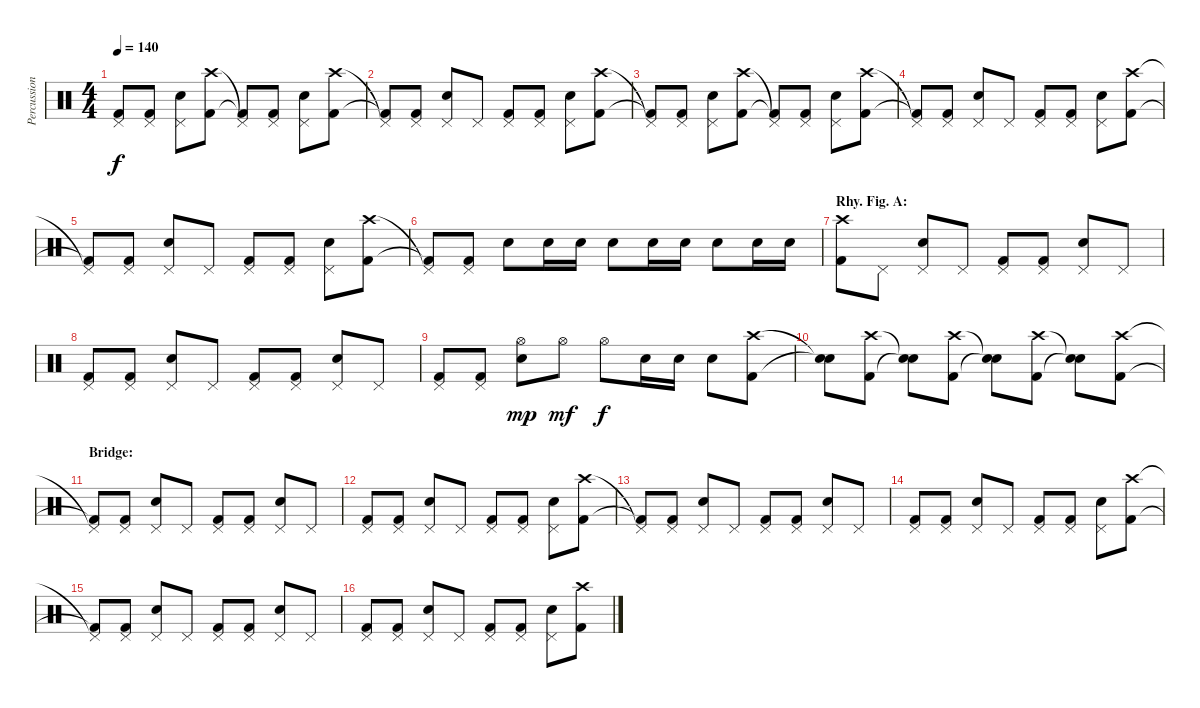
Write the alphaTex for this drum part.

\track ("Percussion" "Percussion") {instrument percussion}
\staff {score}
\articulation defaults
\ts (4 4)
\tempo 140
\clef neutral
\ks c
("Pedal Hi-Hat (hit)"{t} "Kick (hit) 2"{t}).8{dy f} ("Pedal Hi-Hat (hit)" "Kick (hit) 2").8 ("Pedal Hi-Hat (hit)" "Snare (hit) 2").8 ("Crash high (hit)" "Kick (hit) 2").8 ("Pedal Hi-Hat (hit)"{t} "Kick (hit) 2"{t}).8 ("Pedal Hi-Hat (hit)" "Kick (hit) 2").8 ("Pedal Hi-Hat (hit)" "Snare (hit) 2").8 ("Crash high (hit)" "Kick (hit) 2").8 |
("Pedal Hi-Hat (hit)"{t} "Kick (hit) 2"{t}).8 ("Pedal Hi-Hat (hit)" "Kick (hit) 2").8 ("Pedal Hi-Hat (hit)" "Snare (hit) 2").8 "Pedal Hi-Hat (hit)".8 ("Pedal Hi-Hat (hit)" "Kick (hit) 2").8 ("Pedal Hi-Hat (hit)" "Kick (hit) 2").8 ("Pedal Hi-Hat (hit)" "Snare (hit) 2").8 ("Crash high (hit)" "Kick (hit) 2").8 |
("Pedal Hi-Hat (hit)"{t} "Kick (hit) 2"{t}).8 ("Pedal Hi-Hat (hit)" "Kick (hit) 2").8 ("Pedal Hi-Hat (hit)" "Snare (hit) 2").8 ("Crash high (hit)" "Kick (hit) 2").8 ("Pedal Hi-Hat (hit)"{t} "Kick (hit) 2"{t}).8 ("Pedal Hi-Hat (hit)" "Kick (hit) 2").8 ("Pedal Hi-Hat (hit)" "Snare (hit) 2").8 ("Crash high (hit)" "Kick (hit) 2").8 |
("Pedal Hi-Hat (hit)"{t} "Kick (hit) 2"{t}).8 ("Pedal Hi-Hat (hit)" "Kick (hit) 2").8 ("Pedal Hi-Hat (hit)" "Snare (hit) 2").8 "Pedal Hi-Hat (hit)".8 ("Pedal Hi-Hat (hit)" "Kick (hit) 2").8 ("Pedal Hi-Hat (hit)" "Kick (hit) 2").8 ("Pedal Hi-Hat (hit)" "Snare (hit) 2").8 ("Crash high (hit)" "Kick (hit) 2").8 |
("Pedal Hi-Hat (hit)"{t} "Kick (hit) 2"{t}).8 ("Pedal Hi-Hat (hit)" "Kick (hit) 2").8 ("Pedal Hi-Hat (hit)" "Snare (hit) 2").8 "Pedal Hi-Hat (hit)".8 ("Pedal Hi-Hat (hit)" "Kick (hit) 2").8 ("Pedal Hi-Hat (hit)" "Kick (hit) 2").8 ("Pedal Hi-Hat (hit)" "Snare (hit) 2").8 ("Crash high (hit)" "Kick (hit) 2").8 |
("Pedal Hi-Hat (hit)"{t} "Kick (hit) 2"{t}).8 ("Pedal Hi-Hat (hit)" "Kick (hit) 2").8 "Snare (hit) 2".8 "Snare (hit) 2".16 "Snare (hit) 2".16 "Snare (hit) 2".8 "Snare (hit) 2".16 "Snare (hit) 2".16 "Snare (hit) 2".8 "Snare (hit) 2".16 "Snare (hit) 2".16 |
\section ("" "Rhy. Fig. A:")
("Crash high (hit)" "Kick (hit) 2").8 "Pedal Hi-Hat (hit)".8 ("Pedal Hi-Hat (hit)" "Snare (hit) 2").8 "Pedal Hi-Hat (hit)".8 ("Pedal Hi-Hat (hit)" "Kick (hit) 2").8 ("Pedal Hi-Hat (hit)" "Kick (hit) 2").8 ("Pedal Hi-Hat (hit)" "Snare (hit) 2").8 "Pedal Hi-Hat (hit)".8 |
("Pedal Hi-Hat (hit)" "Kick (hit) 2").8 ("Pedal Hi-Hat (hit)" "Kick (hit) 2").8 ("Pedal Hi-Hat (hit)" "Snare (hit) 2").8 "Pedal Hi-Hat (hit)".8 ("Pedal Hi-Hat (hit)" "Kick (hit) 2").8 ("Pedal Hi-Hat (hit)" "Kick (hit) 2").8 ("Pedal Hi-Hat (hit)" "Snare (hit) 2").8 "Pedal Hi-Hat (hit)".8 |
("Pedal Hi-Hat (hit)" "Kick (hit) 2").8 ("Pedal Hi-Hat (hit)" "Kick (hit) 2").8 ("Hi-Hat (open)" "Snare (hit) 2").8{dy mp} "Hi-Hat (open)".8{dy mf} "Hi-Hat (open)".8{dy f} "Snare (hit) 2".16 "Snare (hit) 2".16 "Snare (hit) 2".8 ("Crash high (hit)" "Kick (hit) 2").8 |
("Snare (hit)"{t} "Snare (hit)"{t}).8 ("Crash high (hit)" "Kick (hit) 2").8 ("Snare (hit)"{t} "Snare (hit)"{t}).8 ("Crash high (hit)" "Kick (hit) 2").8 ("Snare (hit)"{t} "Snare (hit)"{t}).8 ("Crash high (hit)" "Kick (hit) 2").8 ("Snare (hit)"{t} "Snare (hit)"{t}).8 ("Crash high (hit)" "Kick (hit) 2").8 |
\section ("" "Bridge:")
("Pedal Hi-Hat (hit)"{t} "Kick (hit) 2"{t}).8 ("Pedal Hi-Hat (hit)" "Kick (hit) 2").8 ("Pedal Hi-Hat (hit)" "Snare (hit) 2").8 "Pedal Hi-Hat (hit)".8 ("Pedal Hi-Hat (hit)" "Kick (hit) 2").8 ("Pedal Hi-Hat (hit)" "Kick (hit) 2").8 ("Pedal Hi-Hat (hit)" "Snare (hit) 2").8 "Pedal Hi-Hat (hit)".8 |
("Pedal Hi-Hat (hit)" "Kick (hit) 2").8 ("Pedal Hi-Hat (hit)" "Kick (hit) 2").8 ("Pedal Hi-Hat (hit)" "Snare (hit) 2").8 "Pedal Hi-Hat (hit)".8 ("Pedal Hi-Hat (hit)" "Kick (hit) 2").8 ("Pedal Hi-Hat (hit)" "Kick (hit) 2").8 ("Pedal Hi-Hat (hit)" "Snare (hit) 2").8 ("Crash high (hit)" "Kick (hit) 2").8 |
("Pedal Hi-Hat (hit)"{t} "Kick (hit) 2"{t}).8 ("Pedal Hi-Hat (hit)" "Kick (hit) 2").8 ("Pedal Hi-Hat (hit)" "Snare (hit) 2").8 "Pedal Hi-Hat (hit)".8 ("Pedal Hi-Hat (hit)" "Kick (hit) 2").8 ("Pedal Hi-Hat (hit)" "Kick (hit) 2").8 ("Pedal Hi-Hat (hit)" "Snare (hit) 2").8 "Pedal Hi-Hat (hit)".8 |
("Pedal Hi-Hat (hit)" "Kick (hit) 2").8 ("Pedal Hi-Hat (hit)" "Kick (hit) 2").8 ("Pedal Hi-Hat (hit)" "Snare (hit) 2").8 "Pedal Hi-Hat (hit)".8 ("Pedal Hi-Hat (hit)" "Kick (hit) 2").8 ("Pedal Hi-Hat (hit)" "Kick (hit) 2").8 ("Pedal Hi-Hat (hit)" "Snare (hit) 2").8 ("Crash high (hit)" "Kick (hit) 2").8 |
("Pedal Hi-Hat (hit)"{t} "Kick (hit) 2"{t}).8 ("Pedal Hi-Hat (hit)" "Kick (hit) 2").8 ("Pedal Hi-Hat (hit)" "Snare (hit) 2").8 "Pedal Hi-Hat (hit)".8 ("Pedal Hi-Hat (hit)" "Kick (hit) 2").8 ("Pedal Hi-Hat (hit)" "Kick (hit) 2").8 ("Pedal Hi-Hat (hit)" "Snare (hit) 2").8 "Pedal Hi-Hat (hit)".8 |
("Pedal Hi-Hat (hit)" "Kick (hit) 2").8 ("Pedal Hi-Hat (hit)" "Kick (hit) 2").8 ("Pedal Hi-Hat (hit)" "Snare (hit) 2").8 "Pedal Hi-Hat (hit)".8 ("Pedal Hi-Hat (hit)" "Kick (hit) 2").8 ("Pedal Hi-Hat (hit)" "Kick (hit) 2").8 ("Pedal Hi-Hat (hit)" "Snare (hit) 2").8 ("Crash high (hit)" "Kick (hit) 2").8
